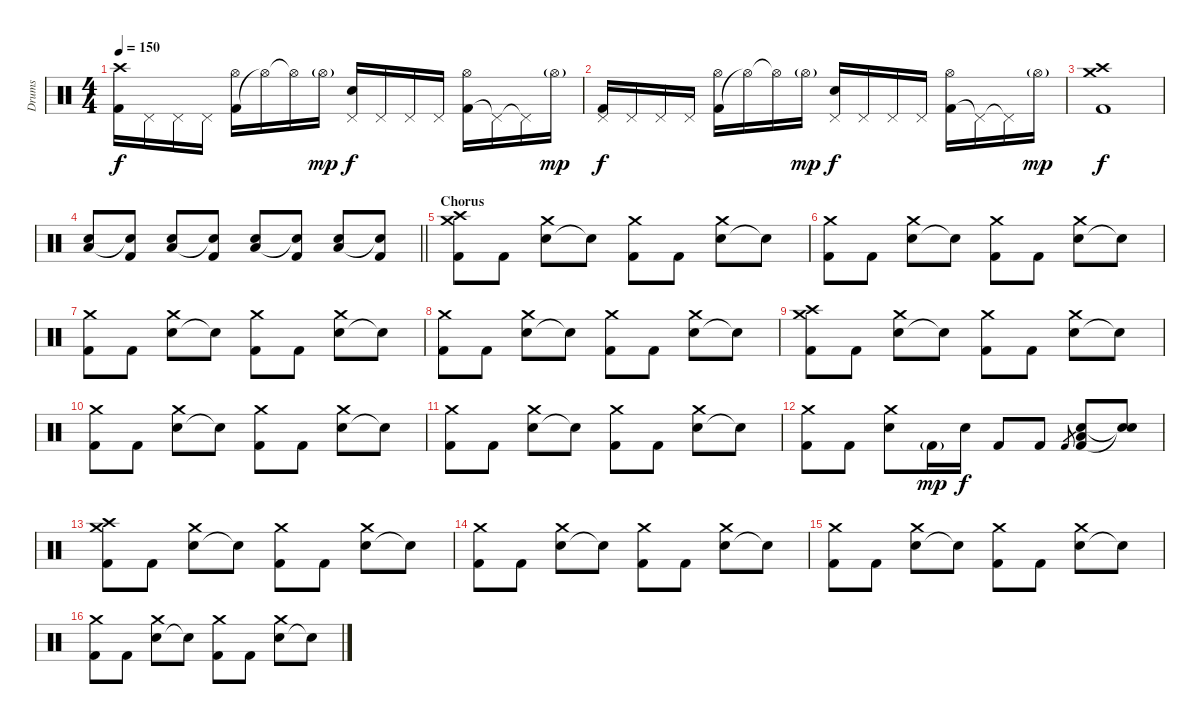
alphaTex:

\track ("Drums" "Drums") {instrument percussion}
\staff {score}
\articulation defaults
\ts (4 4)
\tempo 150
\clef neutral
\ks c
("Kick (hit) 2" "Crash high (hit)").16{dy f} "Pedal Hi-Hat (hit)".16 "Pedal Hi-Hat (hit)".16 "Pedal Hi-Hat (hit)".16 ("Kick (hit) 2" "Hi-Hat (open)").16 "Hi-Hat (open)"{t}.16 "Hi-Hat (open)"{t}.16 "Hi-Hat (open)"{g}.16{dy mp} ("Electric Snare (hit)" "Pedal Hi-Hat (hit)").16{dy f} "Pedal Hi-Hat (hit)".16 "Pedal Hi-Hat (hit)".16 "Pedal Hi-Hat (hit)".16 ("Kick (hit) 2" "Hi-Hat (open)").16 "Pedal Hi-Hat (hit)"{t}.16 "Pedal Hi-Hat (hit)"{t}.16 "Hi-Hat (open)"{g}.16{dy mp} |
("Kick (hit) 2" "Pedal Hi-Hat (hit)").16{dy f} "Pedal Hi-Hat (hit)".16 "Pedal Hi-Hat (hit)".16 "Pedal Hi-Hat (hit)".16 ("Kick (hit) 2" "Hi-Hat (open)").16 "Hi-Hat (open)"{t}.16 "Hi-Hat (open)"{t}.16 "Hi-Hat (open)"{g}.16{dy mp} ("Electric Snare (hit)" "Pedal Hi-Hat (hit)").16{dy f} "Pedal Hi-Hat (hit)".16 "Pedal Hi-Hat (hit)".16 "Pedal Hi-Hat (hit)".16 ("Kick (hit) 2" "Hi-Hat (open)").16 "Pedal Hi-Hat (hit)"{t}.16 "Pedal Hi-Hat (hit)"{t}.16 "Hi-Hat (open)"{g}.16{dy mp} |
("Kick (hit) 2" "Crash medium (hit)" "Crash high (hit)").1{dy f} |
\barLineRight lightlight
("Electric Snare (hit)" "Low Floor Tom (hit)").8 ("Kick (hit) 2" "Snare (hit)"{t}).8 ("Electric Snare (hit)" "Low Floor Tom (hit)").8 ("Kick (hit) 2" "Snare (hit)"{t}).8 ("Electric Snare (hit)" "Low Floor Tom (hit)").8 ("Kick (hit) 2" "Snare (hit)"{t}).8 ("Electric Snare (hit)" "Low Floor Tom (hit)").8 ("Kick (hit) 2" "Snare (hit)"{t}).8 |
\section ("" "Chorus")
("Kick (hit) 2" "Crash medium (hit)" "Crash high (hit)").8 "Kick (hit) 2".8 ("Electric Snare (hit)" "Crash medium (hit)").8 "Snare (hit)"{t}.8 ("Kick (hit) 2" "Crash medium (hit)").8 "Kick (hit) 2".8 ("Electric Snare (hit)" "Crash medium (hit)").8 "Snare (hit)"{t}.8 |
("Kick (hit) 2" "Crash medium (hit)").8 "Kick (hit) 2".8 ("Electric Snare (hit)" "Crash medium (hit)").8 "Snare (hit)"{t}.8 ("Kick (hit) 2" "Crash medium (hit)").8 "Kick (hit) 2".8 ("Electric Snare (hit)" "Crash medium (hit)").8 "Snare (hit)"{t}.8 |
("Kick (hit) 2" "Crash medium (hit)").8 "Kick (hit) 2".8 ("Electric Snare (hit)" "Crash medium (hit)").8 "Snare (hit)"{t}.8 ("Kick (hit) 2" "Crash medium (hit)").8 "Kick (hit) 2".8 ("Electric Snare (hit)" "Crash medium (hit)").8 "Snare (hit)"{t}.8 |
("Kick (hit) 2" "Crash medium (hit)").8 "Kick (hit) 2".8 ("Electric Snare (hit)" "Crash medium (hit)").8 "Snare (hit)"{t}.8 ("Kick (hit) 2" "Crash medium (hit)").8 "Kick (hit) 2".8 ("Electric Snare (hit)" "Crash medium (hit)").8 "Snare (hit)"{t}.8 |
("Kick (hit) 2" "Crash medium (hit)" "Crash high (hit)").8 "Kick (hit) 2".8 ("Electric Snare (hit)" "Crash medium (hit)").8 "Snare (hit)"{t}.8 ("Kick (hit) 2" "Crash medium (hit)").8 "Kick (hit) 2".8 ("Electric Snare (hit)" "Crash medium (hit)").8 "Snare (hit)"{t}.8 |
("Kick (hit) 2" "Crash medium (hit)").8 "Kick (hit) 2".8 ("Electric Snare (hit)" "Crash medium (hit)").8 "Snare (hit)"{t}.8 ("Kick (hit) 2" "Crash medium (hit)").8 "Kick (hit) 2".8 ("Electric Snare (hit)" "Crash medium (hit)").8 "Snare (hit)"{t}.8 |
("Kick (hit) 2" "Crash medium (hit)").8 "Kick (hit) 2".8 ("Electric Snare (hit)" "Crash medium (hit)").8 "Snare (hit)"{t}.8 ("Kick (hit) 2" "Crash medium (hit)").8 "Kick (hit) 2".8 ("Electric Snare (hit)" "Crash medium (hit)").8 "Snare (hit)"{t}.8 |
("Kick (hit) 2" "Crash medium (hit)").8 "Kick (hit) 2".8 ("Electric Snare (hit)" "Crash medium (hit)").8 "Kick (hit) 2"{g}.16{dy mp} "Electric Snare (hit)".16{dy f} "Kick (hit) 2".8 "Kick (hit) 2".8 "Kick (hit) 2".8{gr} ("Electric Snare (hit)" "Kick (hit) 2" "Low Floor Tom (hit)").8 ("Snare (hit)"{t} "Snare (hit)"{t}).8 |
("Kick (hit) 2" "Crash medium (hit)" "Crash high (hit)").8 "Kick (hit) 2".8 ("Electric Snare (hit)" "Crash medium (hit)").8 "Snare (hit)"{t}.8 ("Kick (hit) 2" "Crash medium (hit)").8 "Kick (hit) 2".8 ("Electric Snare (hit)" "Crash medium (hit)").8 "Snare (hit)"{t}.8 |
("Kick (hit) 2" "Crash medium (hit)").8 "Kick (hit) 2".8 ("Electric Snare (hit)" "Crash medium (hit)").8 "Snare (hit)"{t}.8 ("Kick (hit) 2" "Crash medium (hit)").8 "Kick (hit) 2".8 ("Electric Snare (hit)" "Crash medium (hit)").8 "Snare (hit)"{t}.8 |
("Kick (hit) 2" "Crash medium (hit)").8 "Kick (hit) 2".8 ("Electric Snare (hit)" "Crash medium (hit)").8 "Snare (hit)"{t}.8 ("Kick (hit) 2" "Crash medium (hit)").8 "Kick (hit) 2".8 ("Electric Snare (hit)" "Crash medium (hit)").8 "Snare (hit)"{t}.8 |
("Kick (hit) 2" "Crash medium (hit)").8 "Kick (hit) 2".8 ("Electric Snare (hit)" "Crash medium (hit)").8 "Snare (hit)"{t}.8 ("Kick (hit) 2" "Crash medium (hit)").8 "Kick (hit) 2".8 ("Electric Snare (hit)" "Crash medium (hit)").8 "Snare (hit)"{t}.8
